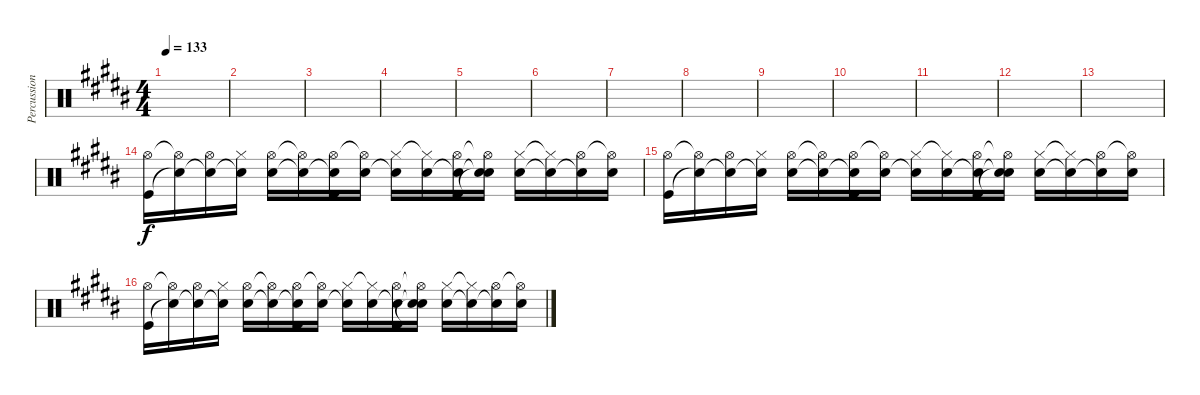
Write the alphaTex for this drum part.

\track ("Percussion" "Percussion") {instrument percussion}
\staff {score}
\articulation defaults
\ts (4 4)
\tempo 133
\clef neutral
\ks b
|
|
|
|
|
|
|
|
|
|
|
|
|
("Hi-Hat (open)" "Kick (hit)").16 ("Hi-Hat (open)"{t} "Snare (hit)"{t}).16 ("Hi-Hat (open)" "Snare (hit)"{t}).16 ("Hi-Hat (closed)" "Snare (hit)"{t}).16 ("Hi-Hat (open)" "Electric Snare (hit)").16 ("Hi-Hat (open)"{t} "Snare (hit)"{t}).16 ("Hi-Hat (open)" "Snare (hit)"{t} "Kick (hit)").16 ("Hi-Hat (open)"{t} "Electric Snare (hit)").16 ("Hi-Hat (closed)" "Snare (hit)"{t}).16 ("Hi-Hat (closed)"{t} "Electric Snare (hit)").16 ("Hi-Hat (open)" "Electric Snare (hit)"{t} "Kick (hit)").16 ("Hi-Hat (open)"{t} "Snare (hit)"{t} "Snare (hit)"{t}).16 ("Hi-Hat (closed)" "Electric Snare (hit)").16 ("Hi-Hat (closed)"{t} "Snare (hit)"{t}).16 ("Hi-Hat (open)" "Snare (hit)"{t}).16 ("Hi-Hat (open)"{t} "Electric Snare (hit)").16 |
("Hi-Hat (open)" "Kick (hit)").16 ("Hi-Hat (open)"{t} "Snare (hit)"{t}).16 ("Hi-Hat (open)" "Snare (hit)"{t}).16 ("Hi-Hat (closed)" "Snare (hit)"{t}).16 ("Hi-Hat (open)" "Electric Snare (hit)").16 ("Hi-Hat (open)"{t} "Snare (hit)"{t}).16 ("Hi-Hat (open)" "Snare (hit)"{t} "Kick (hit)").16 ("Hi-Hat (open)"{t} "Electric Snare (hit)").16 ("Hi-Hat (closed)" "Snare (hit)"{t}).16 ("Hi-Hat (closed)"{t} "Electric Snare (hit)").16 ("Hi-Hat (open)" "Electric Snare (hit)"{t} "Kick (hit)").16 ("Hi-Hat (open)"{t} "Snare (hit)"{t} "Snare (hit)"{t}).16 ("Hi-Hat (closed)" "Electric Snare (hit)").16 ("Hi-Hat (closed)"{t} "Snare (hit)"{t}).16 ("Hi-Hat (open)" "Snare (hit)"{t}).16 ("Hi-Hat (open)"{t} "Electric Snare (hit)").16 |
("Hi-Hat (open)" "Kick (hit)").16 ("Hi-Hat (open)"{t} "Snare (hit)"{t}).16 ("Hi-Hat (open)" "Snare (hit)"{t}).16 ("Hi-Hat (closed)" "Snare (hit)"{t}).16 ("Hi-Hat (open)" "Electric Snare (hit)").16 ("Hi-Hat (open)"{t} "Snare (hit)"{t}).16 ("Hi-Hat (open)" "Snare (hit)"{t} "Kick (hit)").16 ("Hi-Hat (open)"{t} "Electric Snare (hit)").16 ("Hi-Hat (closed)" "Snare (hit)"{t}).16 ("Hi-Hat (closed)"{t} "Electric Snare (hit)").16 ("Hi-Hat (open)" "Electric Snare (hit)"{t} "Kick (hit)").16 ("Hi-Hat (open)"{t} "Snare (hit)"{t} "Snare (hit)"{t}).16 ("Hi-Hat (closed)" "Electric Snare (hit)").16 ("Hi-Hat (closed)"{t} "Snare (hit)"{t}).16 ("Hi-Hat (open)" "Snare (hit)"{t}).16 ("Hi-Hat (open)"{t} "Electric Snare (hit)").16
